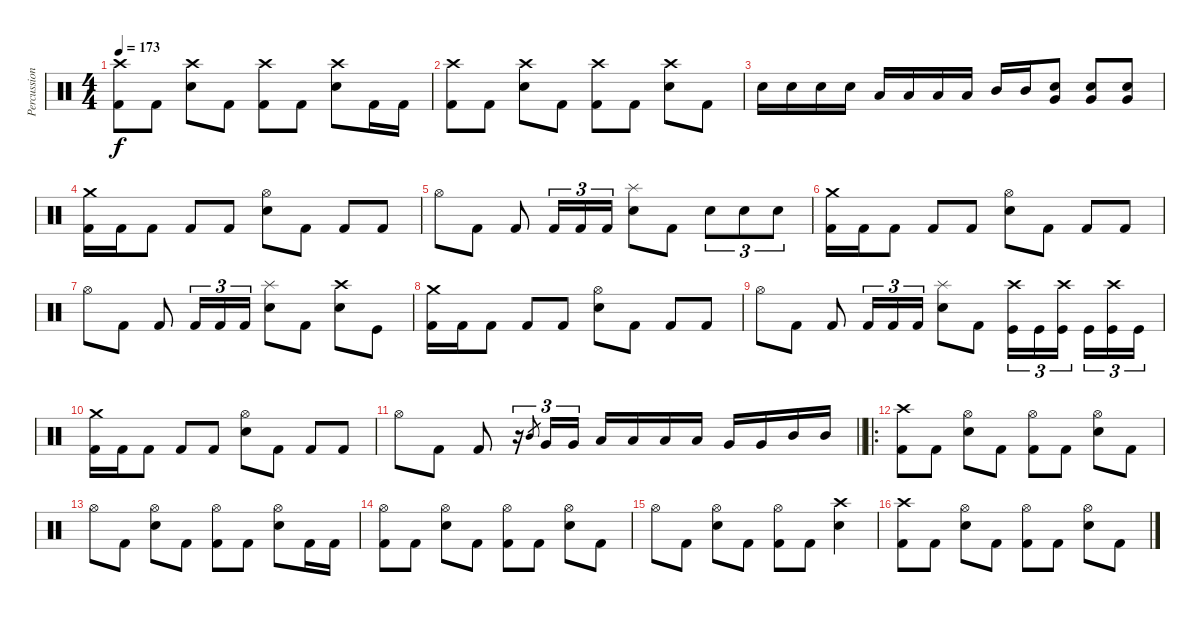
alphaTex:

\track ("Percussion" "Percussion") {instrument percussion}
\staff {score}
\articulation defaults
\ts (4 4)
\tempo 173
\clef neutral
\ks c
("Crash high (hit)" "Kick (hit) 2").8{dy f} "Kick (hit) 2".8 ("Crash high (hit)" "Electric Snare (hit)").8 "Kick (hit) 2".8 ("Crash high (hit)" "Kick (hit) 2").8 "Kick (hit) 2".8 ("Crash high (hit)" "Electric Snare (hit)").8 "Kick (hit) 2".16 "Kick (hit) 2".16 |
("Crash high (hit)" "Kick (hit) 2").8 "Kick (hit) 2".8 ("Crash high (hit)" "Electric Snare (hit)").8 "Kick (hit) 2".8 ("Crash high (hit)" "Kick (hit) 2").8 "Kick (hit) 2".8 ("Crash high (hit)" "Electric Snare (hit)").8 "Kick (hit) 2".8 |
"Electric Snare (hit)".16 "Electric Snare (hit)".16 "Electric Snare (hit)".16 "Electric Snare (hit)".16 "Low Tom (hit)".16 "Low Tom (hit)".16 "Low Tom (hit)".16 "Low Tom (hit)".16 "Mid Tom (hit)".16 "Mid Tom (hit)".16 ("Electric Snare (hit)" "Very Low Tom (hit)").8 ("Electric Snare (hit)" "Very Low Tom (hit)").8 ("Electric Snare (hit)" "Very Low Tom (hit)").8 |
("Crash medium (hit)" "Kick (hit) 2").16 "Kick (hit) 2".16 "Kick (hit) 2".8 "Kick (hit) 2".8 "Kick (hit) 2".8 ("Hi-Hat (open)" "Electric Snare (hit)").8 "Kick (hit) 2".8 "Kick (hit) 2".8 "Kick (hit) 2".8 |
"Hi-Hat (open)".8 "Kick (hit) 2".8 "Kick (hit) 2".8 "Kick (hit) 2".16{tu (3 2)} "Kick (hit) 2".16{tu (3 2)} "Kick (hit) 2".16{tu (3 2)} ("Splash (hit)" "Electric Snare (hit)").8 "Kick (hit) 2".8 "Electric Snare (hit)".8{tu (3 2)} "Electric Snare (hit)".8{tu (3 2)} "Electric Snare (hit)".8{tu (3 2)} |
("Crash medium (hit)" "Kick (hit) 2").16 "Kick (hit) 2".16 "Kick (hit) 2".8 "Kick (hit) 2".8 "Kick (hit) 2".8 ("Hi-Hat (open)" "Electric Snare (hit)").8 "Kick (hit) 2".8 "Kick (hit) 2".8 "Kick (hit) 2".8 |
"Hi-Hat (open)".8 "Kick (hit) 2".8 "Kick (hit) 2".8 "Kick (hit) 2".16{tu (3 2)} "Kick (hit) 2".16{tu (3 2)} "Kick (hit) 2".16{tu (3 2)} ("Splash (hit)" "Electric Snare (hit)").8 "Kick (hit) 2".8 ("Crash high (hit)" "Electric Snare (hit)").8 "Kick (hit)".8 |
("Crash medium (hit)" "Kick (hit) 2").16 "Kick (hit) 2".16 "Kick (hit) 2".8 "Kick (hit) 2".8 "Kick (hit) 2".8 ("Hi-Hat (open)" "Electric Snare (hit)").8 "Kick (hit) 2".8 "Kick (hit) 2".8 "Kick (hit) 2".8 |
"Hi-Hat (open)".8 "Kick (hit) 2".8 "Kick (hit) 2".8 "Kick (hit) 2".16{tu (3 2)} "Kick (hit) 2".16{tu (3 2)} "Kick (hit) 2".16{tu (3 2)} ("Splash (hit)" "Electric Snare (hit)").8 "Kick (hit) 2".8 ("Crash high (hit)" "Kick (hit)").16{tu (3 2)} "Kick (hit)".16{tu (3 2)} ("Crash high (hit)" "Kick (hit)").16{tu (3 2) beam splitsecondary} "Kick (hit)".16{tu (3 2)} ("Crash high (hit)" "Kick (hit)").16{tu (3 2)} "Kick (hit)".16{tu (3 2)} |
("Crash medium (hit)" "Kick (hit) 2").16 "Kick (hit) 2".16 "Kick (hit) 2".8 "Kick (hit) 2".8 "Kick (hit) 2".8 ("Hi-Hat (open)" "Electric Snare (hit)").8 "Kick (hit) 2".8 "Kick (hit) 2".8 "Kick (hit) 2".8 |
\barLineRight lightlight "Hi-Hat (open)".8 "Kick (hit) 2".8 "Kick (hit) 2".8
r.16{tu (3 2)} "Mid Tom (hit)".8{gr} "Very Low Tom (hit)".16{tu (3 2)} "Very Low Tom (hit)".16{tu (3 2)} "Low Floor Tom (hit)".16 "Low Floor Tom (hit)".16 "Low Tom (hit)".16 "Low Tom (hit)".16 "Very Low Tom (hit)".16 "Very Low Tom (hit)".16 "Mid Tom (hit)".16 "Mid Tom (hit)".16 |
\ro
("Crash high (hit)" "Kick (hit) 2").8 "Kick (hit) 2".8 ("Hi-Hat (open)" "Electric Snare (hit)").8 "Kick (hit) 2".8 ("Hi-Hat (open)" "Kick (hit) 2").8 "Kick (hit) 2".8 ("Hi-Hat (open)" "Electric Snare (hit)").8 "Kick (hit) 2".8 |
"Hi-Hat (open)".8 "Kick (hit) 2".8 ("Hi-Hat (open)" "Electric Snare (hit)").8 "Kick (hit) 2".8 ("Hi-Hat (open)" "Kick (hit) 2").8 "Kick (hit) 2".8 ("Hi-Hat (open)" "Electric Snare (hit)").8 "Kick (hit) 2".16 "Kick (hit) 2".16 |
("Hi-Hat (open)" "Kick (hit) 2").8 "Kick (hit) 2".8 ("Hi-Hat (open)" "Electric Snare (hit)").8 "Kick (hit) 2".8 ("Hi-Hat (open)" "Kick (hit) 2").8 "Kick (hit) 2".8 ("Hi-Hat (open)" "Electric Snare (hit)").8 "Kick (hit) 2".8 |
"Hi-Hat (open)".8 "Kick (hit) 2".8 ("Hi-Hat (open)" "Electric Snare (hit)").8 "Kick (hit) 2".8 ("Hi-Hat (open)" "Kick (hit) 2").8 "Kick (hit) 2".8 ("Crash high (hit)" "Electric Snare (hit)").4 |
("Crash high (hit)" "Kick (hit) 2").8 "Kick (hit) 2".8 ("Hi-Hat (open)" "Electric Snare (hit)").8 "Kick (hit) 2".8 ("Hi-Hat (open)" "Kick (hit) 2").8 "Kick (hit) 2".8 ("Hi-Hat (open)" "Electric Snare (hit)").8 "Kick (hit) 2".8
